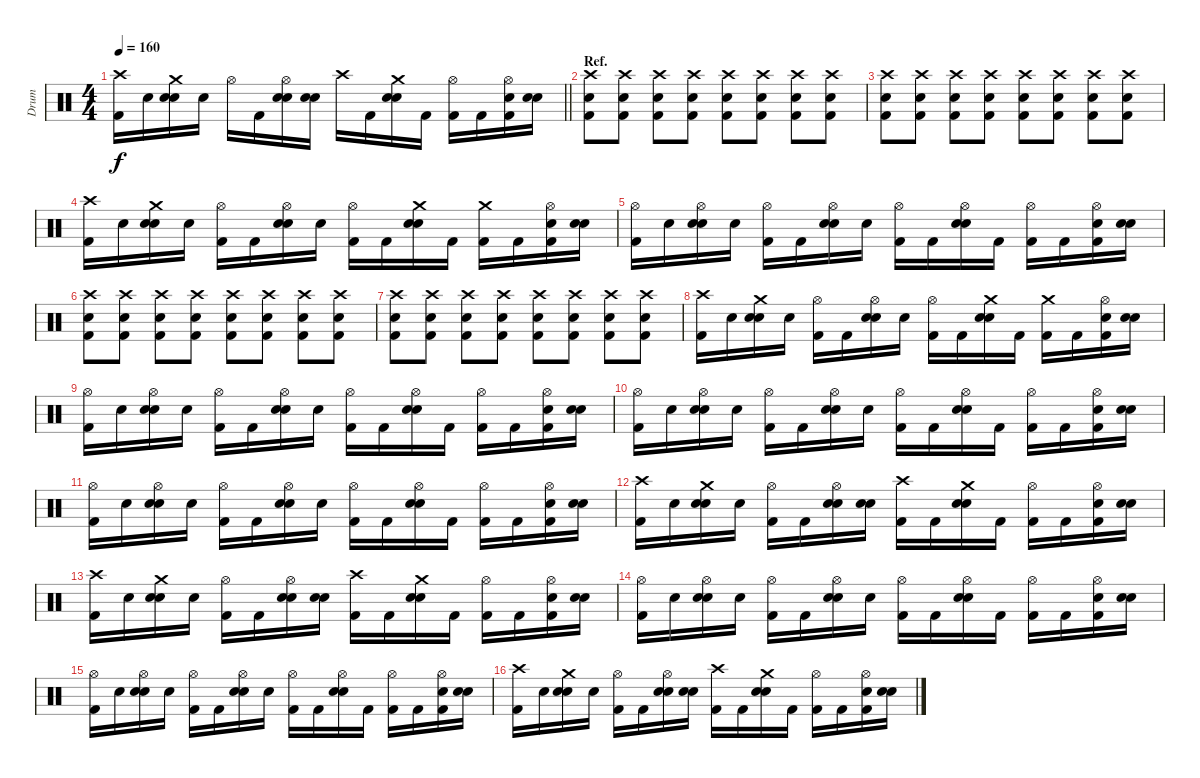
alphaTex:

\track ("Drum" "Drum") {instrument percussion}
\staff {score}
\articulation defaults
\ts (4 4)
\tempo 160
\clef neutral
\barLineRight lightlight
\ks c
("Crash high (hit)" "Kick (hit) 2").16{dy f} "Snare (hit)"{x}.16 ("Crash medium (hit)" "Electric Snare (hit)" "Snare (hit)"{x}).16 "Snare (hit)"{x}.16 "Hi-Hat (open)".16 "Kick (hit) 2".16 ("Hi-Hat (open)" "Electric Snare (hit)" "Snare (hit)"{x}).16 ("Electric Snare (hit)" "Snare (hit)"{x}).16 "Crash high (hit)".16 "Kick (hit) 2".16 ("Crash medium (hit)" "Electric Snare (hit)" "Snare (hit)"{x}).16 "Kick (hit) 2".16 ("Hi-Hat (open)" "Kick (hit) 2"{x}).16 "Kick (hit) 2".16 ("Hi-Hat (open)" "Electric Snare (hit)" "Kick (hit) 2"{x}).16 ("Electric Snare (hit)" "Snare (hit)"{x}).16 |
\section ("" "Ref.")
("Crash high (hit)" "Electric Snare (hit)" "Kick (hit) 2").8 ("Crash high (hit)" "Electric Snare (hit)" "Kick (hit) 2").8 ("Crash high (hit)" "Electric Snare (hit)" "Kick (hit) 2").8 ("Crash high (hit)" "Electric Snare (hit)" "Kick (hit) 2").8 ("Crash high (hit)" "Electric Snare (hit)" "Kick (hit) 2").8 ("Crash high (hit)" "Electric Snare (hit)" "Kick (hit) 2").8 ("Crash high (hit)" "Electric Snare (hit)" "Kick (hit) 2").8 ("Crash high (hit)" "Electric Snare (hit)" "Kick (hit) 2").8 |
("Crash high (hit)" "Electric Snare (hit)" "Kick (hit) 2").8 ("Crash high (hit)" "Electric Snare (hit)" "Kick (hit) 2").8 ("Crash high (hit)" "Electric Snare (hit)" "Kick (hit) 2").8 ("Crash high (hit)" "Electric Snare (hit)" "Kick (hit) 2").8 ("Crash high (hit)" "Electric Snare (hit)" "Kick (hit) 2").8 ("Crash high (hit)" "Electric Snare (hit)" "Kick (hit) 2").8 ("Crash high (hit)" "Electric Snare (hit)" "Kick (hit) 2").8 ("Crash high (hit)" "Electric Snare (hit)" "Kick (hit) 2").8 |
("Crash high (hit)" "Kick (hit) 2").16 "Snare (hit)"{x}.16 ("Crash medium (hit)" "Electric Snare (hit)" "Snare (hit)"{x}).16 "Snare (hit)"{x}.16 ("Hi-Hat (open)" "Kick (hit) 2").16 "Kick (hit) 2".16 ("Hi-Hat (open)" "Electric Snare (hit)" "Snare (hit)"{x}).16 "Snare (hit)"{x}.16 ("Hi-Hat (open)" "Kick (hit) 2").16 "Kick (hit) 2".16 ("Crash medium (hit)" "Electric Snare (hit)" "Snare (hit)"{x}).16 "Kick (hit) 2".16 ("Crash medium (hit)" "Kick (hit) 2"{x}).16 "Kick (hit) 2".16 ("Hi-Hat (open)" "Electric Snare (hit)" "Kick (hit) 2"{x}).16 ("Electric Snare (hit)" "Snare (hit)"{x}).16 |
("Hi-Hat (open)" "Kick (hit) 2").16 "Snare (hit)"{x}.16 ("Hi-Hat (open)" "Electric Snare (hit)" "Snare (hit)"{x}).16 "Snare (hit)"{x}.16 ("Hi-Hat (open)" "Kick (hit) 2").16 "Kick (hit) 2".16 ("Hi-Hat (open)" "Electric Snare (hit)" "Snare (hit)"{x}).16 "Snare (hit)"{x}.16 ("Hi-Hat (open)" "Kick (hit) 2").16 "Kick (hit) 2".16 ("Hi-Hat (open)" "Electric Snare (hit)" "Snare (hit)"{x}).16 "Kick (hit) 2".16 ("Hi-Hat (open)" "Kick (hit) 2"{x}).16 "Kick (hit) 2".16 ("Hi-Hat (open)" "Electric Snare (hit)" "Kick (hit) 2"{x}).16 ("Electric Snare (hit)" "Snare (hit)"{x}).16 |
("Crash high (hit)" "Electric Snare (hit)" "Kick (hit) 2").8 ("Crash high (hit)" "Electric Snare (hit)" "Kick (hit) 2").8 ("Crash high (hit)" "Electric Snare (hit)" "Kick (hit) 2").8 ("Crash high (hit)" "Electric Snare (hit)" "Kick (hit) 2").8 ("Crash high (hit)" "Electric Snare (hit)" "Kick (hit) 2").8 ("Crash high (hit)" "Electric Snare (hit)" "Kick (hit) 2").8 ("Crash high (hit)" "Electric Snare (hit)" "Kick (hit) 2").8 ("Crash high (hit)" "Electric Snare (hit)" "Kick (hit) 2").8 |
("Crash high (hit)" "Electric Snare (hit)" "Kick (hit) 2").8 ("Crash high (hit)" "Electric Snare (hit)" "Kick (hit) 2").8 ("Crash high (hit)" "Electric Snare (hit)" "Kick (hit) 2").8 ("Crash high (hit)" "Electric Snare (hit)" "Kick (hit) 2").8 ("Crash high (hit)" "Electric Snare (hit)" "Kick (hit) 2").8 ("Crash high (hit)" "Electric Snare (hit)" "Kick (hit) 2").8 ("Crash high (hit)" "Electric Snare (hit)" "Kick (hit) 2").8 ("Crash high (hit)" "Electric Snare (hit)" "Kick (hit) 2").8 |
("Crash high (hit)" "Kick (hit) 2").16 "Snare (hit)"{x}.16 ("Crash medium (hit)" "Electric Snare (hit)" "Snare (hit)"{x}).16 "Snare (hit)"{x}.16 ("Hi-Hat (open)" "Kick (hit) 2").16 "Kick (hit) 2".16 ("Hi-Hat (open)" "Electric Snare (hit)" "Snare (hit)"{x}).16 "Snare (hit)"{x}.16 ("Hi-Hat (open)" "Kick (hit) 2").16 "Kick (hit) 2".16 ("Crash medium (hit)" "Electric Snare (hit)" "Snare (hit)"{x}).16 "Kick (hit) 2".16 ("Crash medium (hit)" "Kick (hit) 2"{x}).16 "Kick (hit) 2".16 ("Hi-Hat (open)" "Electric Snare (hit)" "Kick (hit) 2"{x}).16 ("Electric Snare (hit)" "Snare (hit)"{x}).16 |
("Hi-Hat (open)" "Kick (hit) 2").16 "Snare (hit)"{x}.16 ("Hi-Hat (open)" "Electric Snare (hit)" "Snare (hit)"{x}).16 "Snare (hit)"{x}.16 ("Hi-Hat (open)" "Kick (hit) 2").16 "Kick (hit) 2".16 ("Hi-Hat (open)" "Electric Snare (hit)" "Snare (hit)"{x}).16 "Snare (hit)"{x}.16 ("Hi-Hat (open)" "Kick (hit) 2").16 "Kick (hit) 2".16 ("Hi-Hat (open)" "Electric Snare (hit)" "Snare (hit)"{x}).16 "Kick (hit) 2".16 ("Hi-Hat (open)" "Kick (hit) 2"{x}).16 "Kick (hit) 2".16 ("Hi-Hat (open)" "Electric Snare (hit)" "Kick (hit) 2"{x}).16 ("Electric Snare (hit)" "Snare (hit)"{x}).16 |
("Hi-Hat (open)" "Kick (hit) 2").16 "Snare (hit)"{x}.16 ("Hi-Hat (open)" "Electric Snare (hit)" "Snare (hit)"{x}).16 "Snare (hit)"{x}.16 ("Hi-Hat (open)" "Kick (hit) 2").16 "Kick (hit) 2".16 ("Hi-Hat (open)" "Electric Snare (hit)" "Snare (hit)"{x}).16 "Snare (hit)"{x}.16 ("Hi-Hat (open)" "Kick (hit) 2").16 "Kick (hit) 2".16 ("Hi-Hat (open)" "Electric Snare (hit)" "Snare (hit)"{x}).16 "Kick (hit) 2".16 ("Hi-Hat (open)" "Kick (hit) 2"{x}).16 "Kick (hit) 2".16 ("Hi-Hat (open)" "Electric Snare (hit)" "Kick (hit) 2"{x}).16 ("Electric Snare (hit)" "Snare (hit)"{x}).16 |
("Hi-Hat (open)" "Kick (hit) 2").16 "Snare (hit)"{x}.16 ("Hi-Hat (open)" "Electric Snare (hit)" "Snare (hit)"{x}).16 "Snare (hit)"{x}.16 ("Hi-Hat (open)" "Kick (hit) 2").16 "Kick (hit) 2".16 ("Hi-Hat (open)" "Electric Snare (hit)" "Snare (hit)"{x}).16 "Snare (hit)"{x}.16 ("Hi-Hat (open)" "Kick (hit) 2").16 "Kick (hit) 2".16 ("Hi-Hat (open)" "Electric Snare (hit)" "Snare (hit)"{x}).16 "Kick (hit) 2".16 ("Hi-Hat (open)" "Kick (hit) 2"{x}).16 "Kick (hit) 2".16 ("Hi-Hat (open)" "Electric Snare (hit)" "Kick (hit) 2"{x}).16 ("Electric Snare (hit)" "Snare (hit)"{x}).16 |
("Crash high (hit)" "Kick (hit) 2").16 "Snare (hit)"{x}.16 ("Crash medium (hit)" "Electric Snare (hit)" "Snare (hit)"{x}).16 "Snare (hit)"{x}.16 ("Hi-Hat (open)" "Kick (hit) 2").16 "Kick (hit) 2"{x}.16 ("Hi-Hat (open)" "Electric Snare (hit)" "Snare (hit)"{x}).16 ("Electric Snare (hit)" "Snare (hit)"{x}).16 ("Crash high (hit)" "Kick (hit) 2").16 "Kick (hit) 2"{x}.16 ("Crash medium (hit)" "Electric Snare (hit)" "Snare (hit)"{x}).16 "Kick (hit) 2"{x}.16 ("Hi-Hat (open)" "Kick (hit) 2").16 "Kick (hit) 2"{x}.16 ("Hi-Hat (open)" "Electric Snare (hit)" "Kick (hit) 2"{x}).16 ("Electric Snare (hit)" "Snare (hit)"{x}).16 |
("Crash high (hit)" "Kick (hit) 2").16 "Snare (hit)"{x}.16 ("Crash medium (hit)" "Electric Snare (hit)" "Snare (hit)"{x}).16 "Snare (hit)"{x}.16 ("Hi-Hat (open)" "Kick (hit) 2").16 "Kick (hit) 2".16 ("Hi-Hat (open)" "Electric Snare (hit)" "Snare (hit)"{x}).16 ("Electric Snare (hit)" "Snare (hit)"{x}).16 ("Crash high (hit)" "Kick (hit) 2").16 "Kick (hit) 2".16 ("Crash medium (hit)" "Electric Snare (hit)" "Snare (hit)"{x}).16 "Kick (hit) 2".16 ("Hi-Hat (open)" "Kick (hit) 2"{x}).16 "Kick (hit) 2".16 ("Hi-Hat (open)" "Electric Snare (hit)" "Kick (hit) 2"{x}).16 ("Electric Snare (hit)" "Snare (hit)"{x}).16 |
("Hi-Hat (open)" "Kick (hit) 2").16 "Snare (hit)"{x}.16 ("Hi-Hat (open)" "Electric Snare (hit)" "Snare (hit)"{x}).16 "Snare (hit)"{x}.16 ("Hi-Hat (open)" "Kick (hit) 2").16 "Kick (hit) 2".16 ("Hi-Hat (open)" "Electric Snare (hit)" "Snare (hit)"{x}).16 "Snare (hit)"{x}.16 ("Hi-Hat (open)" "Kick (hit) 2").16 "Kick (hit) 2".16 ("Hi-Hat (open)" "Electric Snare (hit)" "Snare (hit)"{x}).16 "Kick (hit) 2".16 ("Hi-Hat (open)" "Kick (hit) 2"{x}).16 "Kick (hit) 2".16 ("Hi-Hat (open)" "Electric Snare (hit)" "Kick (hit) 2"{x}).16 ("Electric Snare (hit)" "Snare (hit)"{x}).16 |
("Hi-Hat (open)" "Kick (hit) 2").16 "Snare (hit)"{x}.16 ("Hi-Hat (open)" "Electric Snare (hit)" "Snare (hit)"{x}).16 "Snare (hit)"{x}.16 ("Hi-Hat (open)" "Kick (hit) 2").16 "Kick (hit) 2".16 ("Hi-Hat (open)" "Electric Snare (hit)" "Snare (hit)"{x}).16 "Snare (hit)"{x}.16 ("Hi-Hat (open)" "Kick (hit) 2").16 "Kick (hit) 2".16 ("Hi-Hat (open)" "Electric Snare (hit)" "Snare (hit)"{x}).16 "Kick (hit) 2".16 ("Hi-Hat (open)" "Kick (hit) 2"{x}).16 "Kick (hit) 2".16 ("Hi-Hat (open)" "Electric Snare (hit)" "Kick (hit) 2"{x}).16 ("Electric Snare (hit)" "Snare (hit)"{x}).16 |
("Crash high (hit)" "Kick (hit) 2").16 "Snare (hit)"{x}.16 ("Crash medium (hit)" "Electric Snare (hit)" "Snare (hit)"{x}).16 "Snare (hit)"{x}.16 ("Hi-Hat (open)" "Kick (hit) 2").16 "Kick (hit) 2"{x}.16 ("Hi-Hat (open)" "Electric Snare (hit)" "Snare (hit)"{x}).16 ("Electric Snare (hit)" "Snare (hit)"{x}).16 ("Crash high (hit)" "Kick (hit) 2").16 "Kick (hit) 2"{x}.16 ("Crash medium (hit)" "Electric Snare (hit)" "Snare (hit)"{x}).16 "Kick (hit) 2"{x}.16 ("Hi-Hat (open)" "Kick (hit) 2").16 "Kick (hit) 2"{x}.16 ("Hi-Hat (open)" "Electric Snare (hit)" "Kick (hit) 2"{x}).16 ("Electric Snare (hit)" "Snare (hit)"{x}).16
